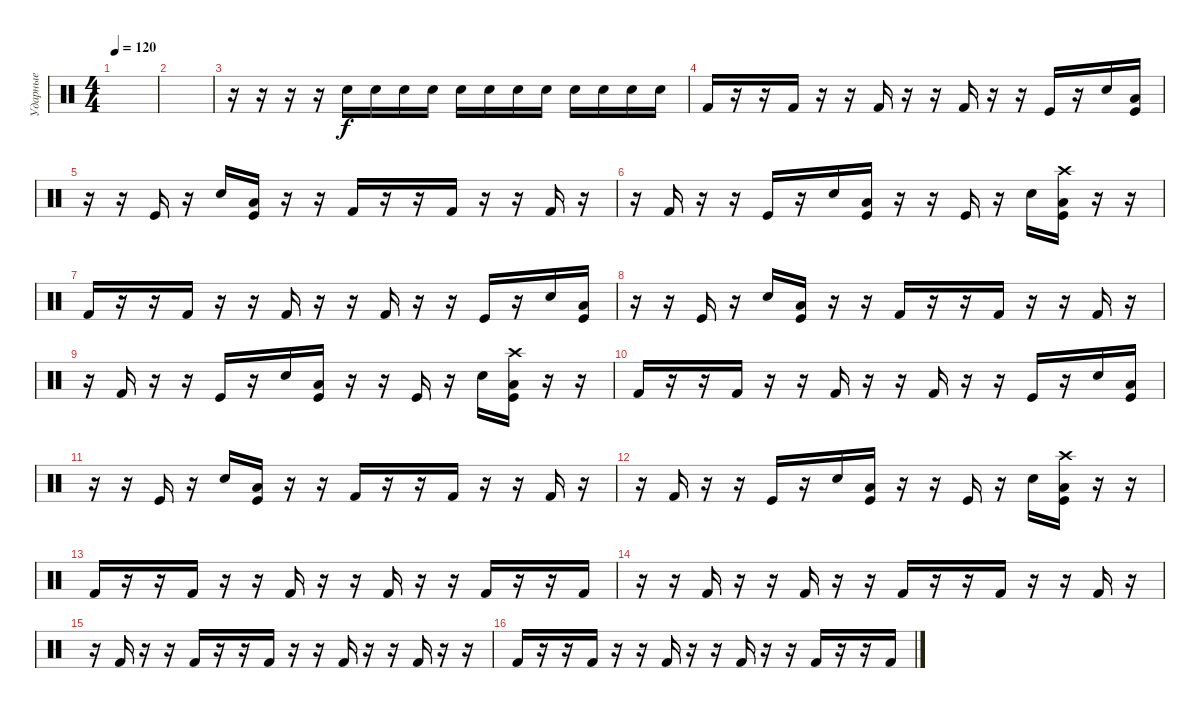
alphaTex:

\track ("Ударные" "Ударные") {instrument percussion}
\staff {score}
\articulation defaults
\ts (4 4)
\tempo 120
\clef neutral
\ks c
|
|
r.16 r.16 r.16 r.16 "Snare (hit) 2".16 "Snare (hit) 2".16 "Snare (hit) 2".16 "Snare (hit) 2".16 "Snare (hit) 2".16 "Snare (hit) 2".16 "Snare (hit) 2".16 "Snare (hit) 2".16 "Snare (hit) 2".16 "Snare (hit) 2".16 "Snare (hit) 2".16 "Snare (hit) 2".16 |
"Kick (hit) 2".16 r.16 r.16 "Kick (hit) 2".16 r.16 r.16 "Kick (hit) 2".16 r.16 r.16 "Kick (hit) 2".16 r.16 r.16 "Kick (hit)".16 r.16 "Snare (hit) 2".16 ("Kick (hit)" "Low Floor Tom (hit)").16 |
r.16 r.16 "Kick (hit)".16 r.16 "Snare (hit) 2".16 ("Kick (hit)" "Low Floor Tom (hit)").16 r.16 r.16 "Kick (hit) 2".16 r.16 r.16 "Kick (hit) 2".16 r.16 r.16 "Kick (hit) 2".16 r.16 |
r.16 "Kick (hit) 2".16 r.16 r.16 "Kick (hit)".16 r.16 "Snare (hit) 2".16 ("Kick (hit)" "Low Floor Tom (hit)").16 r.16 r.16 "Kick (hit)".16 r.16 "Snare (hit) 2".16 ("Kick (hit)" "Crash high (hit)" "Low Floor Tom (hit)").16 r.16 r.16 |
"Kick (hit) 2".16 r.16 r.16 "Kick (hit) 2".16 r.16 r.16 "Kick (hit) 2".16 r.16 r.16 "Kick (hit) 2".16 r.16 r.16 "Kick (hit)".16 r.16 "Snare (hit) 2".16 ("Kick (hit)" "Low Floor Tom (hit)").16 |
r.16 r.16 "Kick (hit)".16 r.16 "Snare (hit) 2".16 ("Kick (hit)" "Low Floor Tom (hit)").16 r.16 r.16 "Kick (hit) 2".16 r.16 r.16 "Kick (hit) 2".16 r.16 r.16 "Kick (hit) 2".16 r.16 |
r.16 "Kick (hit) 2".16 r.16 r.16 "Kick (hit)".16 r.16 "Snare (hit) 2".16 ("Kick (hit)" "Low Floor Tom (hit)").16 r.16 r.16 "Kick (hit)".16 r.16 "Snare (hit) 2".16 ("Kick (hit)" "Crash high (hit)" "Low Floor Tom (hit)").16 r.16 r.16 |
"Kick (hit) 2".16 r.16 r.16 "Kick (hit) 2".16 r.16 r.16 "Kick (hit) 2".16 r.16 r.16 "Kick (hit) 2".16 r.16 r.16 "Kick (hit)".16 r.16 "Snare (hit) 2".16 ("Kick (hit)" "Low Floor Tom (hit)").16 |
r.16 r.16 "Kick (hit)".16 r.16 "Snare (hit) 2".16 ("Kick (hit)" "Low Floor Tom (hit)").16 r.16 r.16 "Kick (hit) 2".16 r.16 r.16 "Kick (hit) 2".16 r.16 r.16 "Kick (hit) 2".16 r.16 |
r.16 "Kick (hit) 2".16 r.16 r.16 "Kick (hit)".16 r.16 "Snare (hit) 2".16 ("Kick (hit)" "Low Floor Tom (hit)").16 r.16 r.16 "Kick (hit)".16 r.16 "Snare (hit) 2".16 ("Kick (hit)" "Crash high (hit)" "Low Floor Tom (hit)").16 r.16 r.16 |
"Kick (hit) 2".16 r.16 r.16 "Kick (hit) 2".16 r.16 r.16 "Kick (hit) 2".16 r.16 r.16 "Kick (hit) 2".16 r.16 r.16 "Kick (hit) 2".16 r.16 r.16 "Kick (hit) 2".16 |
r.16 r.16 "Kick (hit) 2".16 r.16 r.16 "Kick (hit) 2".16 r.16 r.16 "Kick (hit) 2".16 r.16 r.16 "Kick (hit) 2".16 r.16 r.16 "Kick (hit) 2".16 r.16 |
r.16 "Kick (hit) 2".16 r.16 r.16 "Kick (hit) 2".16 r.16 r.16 "Kick (hit) 2".16 r.16 r.16 "Kick (hit) 2".16 r.16 r.16 "Kick (hit) 2".16 r.16 r.16 |
"Kick (hit) 2".16 r.16 r.16 "Kick (hit) 2".16 r.16 r.16 "Kick (hit) 2".16 r.16 r.16 "Kick (hit) 2".16 r.16 r.16 "Kick (hit) 2".16 r.16 r.16 "Kick (hit) 2".16
